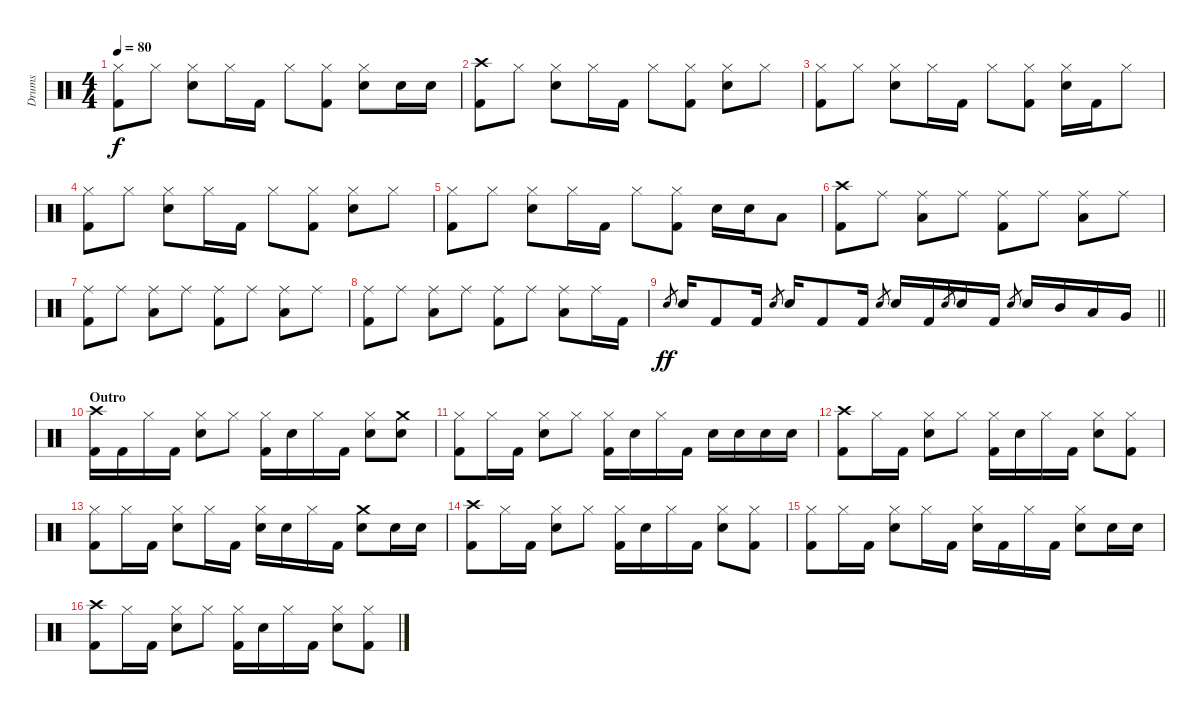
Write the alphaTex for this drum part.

\track ("Drums" "Drums") {instrument percussion}
\staff {score}
\articulation defaults
\ts (4 4)
\tempo 80
\clef neutral
\ks c
("Hi-Hat (closed)" "Kick (hit) 2").8{dy f} "Hi-Hat (closed)".8 ("Hi-Hat (closed)" "Snare (hit) 2").8 "Hi-Hat (closed)".16 "Kick (hit) 2".16 "Hi-Hat (closed)".8 ("Hi-Hat (closed)" "Kick (hit) 2").8 ("Hi-Hat (closed)" "Snare (hit) 2").8 "Snare (hit) 2".16 "Snare (hit) 2".16 |
("Crash high (hit)" "Kick (hit) 2").8 "Hi-Hat (closed)".8 ("Hi-Hat (closed)" "Snare (hit) 2").8 "Hi-Hat (closed)".16 "Kick (hit) 2".16 "Hi-Hat (closed)".8 ("Hi-Hat (closed)" "Kick (hit) 2").8 ("Hi-Hat (closed)" "Snare (hit) 2").8 "Hi-Hat (closed)".8 |
("Hi-Hat (closed)" "Kick (hit) 2").8 "Hi-Hat (closed)".8 ("Hi-Hat (closed)" "Snare (hit) 2").8 "Hi-Hat (closed)".16 "Kick (hit) 2".16 "Hi-Hat (closed)".8 ("Hi-Hat (closed)" "Kick (hit) 2").8 ("Hi-Hat (closed)" "Snare (hit) 2").16 "Kick (hit) 2".16 "Hi-Hat (closed)".8 |
("Hi-Hat (closed)" "Kick (hit) 2").8 "Hi-Hat (closed)".8 ("Hi-Hat (closed)" "Snare (hit) 2").8 "Hi-Hat (closed)".16 "Kick (hit) 2".16 "Hi-Hat (closed)".8 ("Hi-Hat (closed)" "Kick (hit) 2").8 ("Hi-Hat (closed)" "Snare (hit) 2").8 "Hi-Hat (closed)".8 |
("Hi-Hat (closed)" "Kick (hit) 2").8 "Hi-Hat (closed)".8 ("Hi-Hat (closed)" "Snare (hit) 2").8 "Hi-Hat (closed)".16 "Kick (hit) 2".16 "Hi-Hat (closed)".8 ("Hi-Hat (closed)" "Kick (hit) 2").8 "Snare (hit) 2".16 "Snare (hit) 2".16 "Low Tom (hit)".8 |
("Crash high (hit)" "Kick (hit) 2").8 "Ride (middle)".8 ("Ride (middle)" "Low Tom (hit)").8 "Ride (middle)".8 ("Ride (middle)" "Kick (hit) 2").8 "Ride (middle)".8 ("Ride (middle)" "Low Tom (hit)").8 "Ride (middle)".8 |
("Ride (middle)" "Kick (hit) 2").8 "Ride (middle)".8 ("Ride (middle)" "Low Tom (hit)").8 "Ride (middle)".8 ("Ride (middle)" "Kick (hit) 2").8 "Ride (middle)".8 ("Ride (middle)" "Low Tom (hit)").8 "Ride (middle)".8 |
("Ride (middle)" "Kick (hit) 2").8 "Ride (middle)".8 ("Ride (middle)" "Low Tom (hit)").8 "Ride (middle)".8 ("Ride (middle)" "Kick (hit) 2").8 "Ride (middle)".8 ("Ride (middle)" "Low Tom (hit)").8 "Ride (middle)".16 "Kick (hit) 2".16 |
\barLineRight lightlight "Snare (hit) 2".8{gr dy ff} "Snare (hit) 2".16 "Kick (hit) 2".8 "Kick (hit) 2".16 "Snare (hit) 2".8{gr} "Snare (hit) 2".16 "Kick (hit) 2".8 "Kick (hit) 2".16 "Snare (hit) 2".8{gr} "Snare (hit) 2".16 "Kick (hit) 2".16 "Snare (hit) 2".8{gr} "Snare (hit) 2".16 "Kick (hit) 2".16 "Snare (hit) 2".8{gr} "Snare (hit) 2".16 "Mid Tom (hit)".16 "Low Tom (hit)".16 "Very Low Tom (hit)".16
|
\section ("" "Outro")
("Crash high (hit)" "Kick (hit) 2").16 "Kick (hit) 2".16 "Hi-Hat (closed)".16 "Kick (hit) 2".16 ("Hi-Hat (closed)" "Snare (hit) 2").8 "Hi-Hat (closed)".8 ("Hi-Hat (closed)" "Kick (hit) 2").16 "Snare (hit) 2".16 "Hi-Hat (closed)".16 "Kick (hit) 2".16 ("Hi-Hat (closed)" "Snare (hit) 2").8 ("Crash medium (hit)" "Snare (hit) 2").8 |
("Hi-Hat (closed)" "Kick (hit) 2").8 "Hi-Hat (closed)".16 "Kick (hit) 2".16 ("Hi-Hat (closed)" "Snare (hit) 2").8 "Hi-Hat (closed)".8 ("Hi-Hat (closed)" "Kick (hit) 2").16 "Snare (hit) 2".16 "Hi-Hat (closed)".16 "Kick (hit) 2".16 "Snare (hit) 2".16 "Snare (hit) 2".16 "Snare (hit) 2".16 "Snare (hit) 2".16 |
("Crash high (hit)" "Kick (hit) 2").8 "Hi-Hat (closed)".16 "Kick (hit) 2".16 ("Hi-Hat (closed)" "Snare (hit) 2").8 "Hi-Hat (closed)".8 ("Hi-Hat (closed)" "Kick (hit) 2").16 "Snare (hit) 2".16 "Hi-Hat (closed)".16 "Kick (hit) 2".16 ("Hi-Hat (closed)" "Snare (hit) 2").8 ("Hi-Hat (closed)" "Kick (hit) 2").8 |
("Hi-Hat (closed)" "Kick (hit) 2").8 "Hi-Hat (closed)".16 "Kick (hit) 2".16 ("Hi-Hat (closed)" "Snare (hit) 2").8 "Hi-Hat (closed)".16 "Kick (hit) 2".16 ("Hi-Hat (closed)" "Snare (hit) 2").16 "Snare (hit) 2".16 "Hi-Hat (closed)".16 "Kick (hit) 2".16 ("Crash medium (hit)" "Snare (hit) 2").8 "Snare (hit) 2".16 "Snare (hit) 2".16 |
("Crash high (hit)" "Kick (hit) 2").8 "Hi-Hat (closed)".16 "Kick (hit) 2".16 ("Hi-Hat (closed)" "Snare (hit) 2").8 "Hi-Hat (closed)".8 ("Hi-Hat (closed)" "Kick (hit) 2").16 "Snare (hit) 2".16 "Hi-Hat (closed)".16 "Kick (hit) 2".16 ("Hi-Hat (closed)" "Snare (hit) 2").8 ("Hi-Hat (closed)" "Kick (hit) 2").8 |
("Hi-Hat (closed)" "Kick (hit) 2").8 "Hi-Hat (closed)".16 "Kick (hit) 2".16 ("Hi-Hat (closed)" "Snare (hit) 2").8 "Hi-Hat (closed)".16 "Kick (hit) 2".16 ("Hi-Hat (closed)" "Snare (hit) 2").16 "Kick (hit) 2".16 "Hi-Hat (closed)".16 "Kick (hit) 2".16 ("Hi-Hat (closed)" "Snare (hit) 2").8 "Snare (hit) 2".16 "Snare (hit) 2".16 |
("Crash high (hit)" "Kick (hit) 2").8 "Hi-Hat (closed)".16 "Kick (hit) 2".16 ("Hi-Hat (closed)" "Snare (hit) 2").8 "Hi-Hat (closed)".8 ("Hi-Hat (closed)" "Kick (hit) 2").16 "Snare (hit) 2".16 "Hi-Hat (closed)".16 "Kick (hit) 2".16 ("Hi-Hat (closed)" "Snare (hit) 2").8 ("Hi-Hat (closed)" "Kick (hit) 2").8
